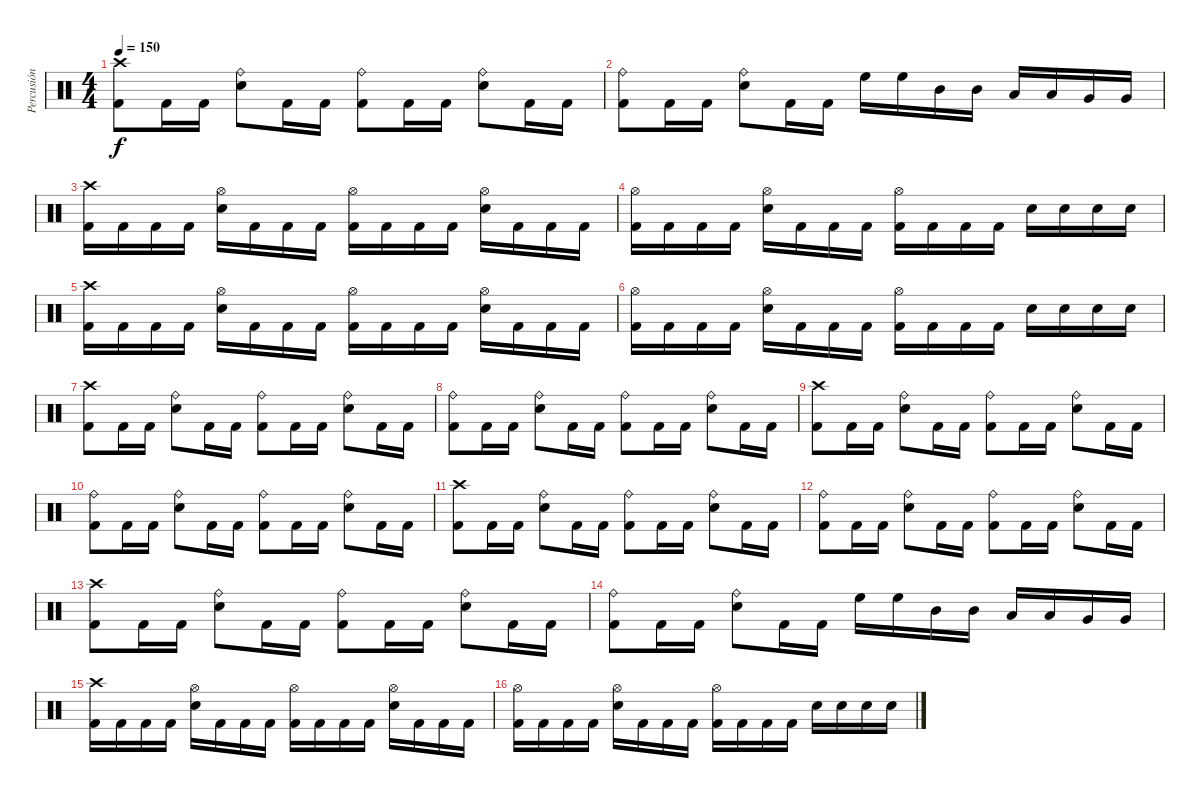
\track ("Percusión" "Percusión") {instrument percussion}
\staff {score}
\articulation defaults
\ts (4 4)
\tempo 150
\clef neutral
\ks c
("Crash high (hit)" "Kick (hit) 2").8{dy f} "Kick (hit) 2".16 "Kick (hit) 2".16 ("Ride (bell)" "Electric Snare (hit)").8 "Kick (hit) 2".16 "Kick (hit) 2".16 ("Ride (bell)" "Kick (hit) 2").8 "Kick (hit) 2".16 "Kick (hit) 2".16 ("Ride (bell)" "Electric Snare (hit)").8 "Kick (hit) 2".16 "Kick (hit) 2".16 |
("Ride (bell)" "Kick (hit) 2").8 "Kick (hit) 2".16 "Kick (hit) 2".16 ("Ride (bell)" "Electric Snare (hit)").8 "Kick (hit) 2".16 "Kick (hit) 2".16 "High Floor Tom (hit)".16 "High Floor Tom (hit)".16 "Mid Tom (hit)".16 "Mid Tom (hit)".16 "Low Tom (hit)".16 "Low Tom (hit)".16 "Very Low Tom (hit)".16 "Very Low Tom (hit)".16 |
("Crash high (hit)" "Kick (hit) 2").16 "Kick (hit) 2".16 "Kick (hit) 2".16 "Kick (hit) 2".16 ("Hi-Hat (open)" "Electric Snare (hit)").16 "Kick (hit) 2".16 "Kick (hit) 2".16 "Kick (hit) 2".16 ("Hi-Hat (open)" "Kick (hit) 2").16 "Kick (hit) 2".16 "Kick (hit) 2".16 "Kick (hit) 2".16 ("Hi-Hat (open)" "Electric Snare (hit)").16 "Kick (hit) 2".16 "Kick (hit) 2".16 "Kick (hit) 2".16 |
("Hi-Hat (open)" "Kick (hit) 2").16 "Kick (hit) 2".16 "Kick (hit) 2".16 "Kick (hit) 2".16 ("Hi-Hat (open)" "Electric Snare (hit)").16 "Kick (hit) 2".16 "Kick (hit) 2".16 "Kick (hit) 2".16 ("Hi-Hat (open)" "Kick (hit) 2").16 "Kick (hit) 2".16 "Kick (hit) 2".16 "Kick (hit) 2".16 "Electric Snare (hit)".16 "Electric Snare (hit)".16 "Electric Snare (hit)".16 "Electric Snare (hit)".16 |
("Crash high (hit)" "Kick (hit) 2").16 "Kick (hit) 2".16 "Kick (hit) 2".16 "Kick (hit) 2".16 ("Hi-Hat (open)" "Electric Snare (hit)").16 "Kick (hit) 2".16 "Kick (hit) 2".16 "Kick (hit) 2".16 ("Hi-Hat (open)" "Kick (hit) 2").16 "Kick (hit) 2".16 "Kick (hit) 2".16 "Kick (hit) 2".16 ("Hi-Hat (open)" "Electric Snare (hit)").16 "Kick (hit) 2".16 "Kick (hit) 2".16 "Kick (hit) 2".16 |
("Hi-Hat (open)" "Kick (hit) 2").16 "Kick (hit) 2".16 "Kick (hit) 2".16 "Kick (hit) 2".16 ("Hi-Hat (open)" "Electric Snare (hit)").16 "Kick (hit) 2".16 "Kick (hit) 2".16 "Kick (hit) 2".16 ("Hi-Hat (open)" "Kick (hit) 2").16 "Kick (hit) 2".16 "Kick (hit) 2".16 "Kick (hit) 2".16 "Electric Snare (hit)".16 "Electric Snare (hit)".16 "Electric Snare (hit)".16 "Electric Snare (hit)".16 |
("Crash high (hit)" "Kick (hit) 2").8 "Kick (hit) 2".16 "Kick (hit) 2".16 ("Ride (bell)" "Electric Snare (hit)").8 "Kick (hit) 2".16 "Kick (hit) 2".16 ("Ride (bell)" "Kick (hit) 2").8 "Kick (hit) 2".16 "Kick (hit) 2".16 ("Ride (bell)" "Electric Snare (hit)").8 "Kick (hit) 2".16 "Kick (hit) 2".16 |
("Ride (bell)" "Kick (hit) 2").8 "Kick (hit) 2".16 "Kick (hit) 2".16 ("Ride (bell)" "Electric Snare (hit)").8 "Kick (hit) 2".16 "Kick (hit) 2".16 ("Ride (bell)" "Kick (hit) 2").8 "Kick (hit) 2".16 "Kick (hit) 2".16 ("Ride (bell)" "Electric Snare (hit)").8 "Kick (hit) 2".16 "Kick (hit) 2".16 |
("Crash high (hit)" "Kick (hit) 2").8 "Kick (hit) 2".16 "Kick (hit) 2".16 ("Ride (bell)" "Electric Snare (hit)").8 "Kick (hit) 2".16 "Kick (hit) 2".16 ("Ride (bell)" "Kick (hit) 2").8 "Kick (hit) 2".16 "Kick (hit) 2".16 ("Ride (bell)" "Electric Snare (hit)").8 "Kick (hit) 2".16 "Kick (hit) 2".16 |
("Ride (bell)" "Kick (hit) 2").8 "Kick (hit) 2".16 "Kick (hit) 2".16 ("Ride (bell)" "Electric Snare (hit)").8 "Kick (hit) 2".16 "Kick (hit) 2".16 ("Ride (bell)" "Kick (hit) 2").8 "Kick (hit) 2".16 "Kick (hit) 2".16 ("Ride (bell)" "Electric Snare (hit)").8 "Kick (hit) 2".16 "Kick (hit) 2".16 |
("Crash high (hit)" "Kick (hit) 2").8 "Kick (hit) 2".16 "Kick (hit) 2".16 ("Ride (bell)" "Electric Snare (hit)").8 "Kick (hit) 2".16 "Kick (hit) 2".16 ("Ride (bell)" "Kick (hit) 2").8 "Kick (hit) 2".16 "Kick (hit) 2".16 ("Ride (bell)" "Electric Snare (hit)").8 "Kick (hit) 2".16 "Kick (hit) 2".16 |
("Ride (bell)" "Kick (hit) 2").8 "Kick (hit) 2".16 "Kick (hit) 2".16 ("Ride (bell)" "Electric Snare (hit)").8 "Kick (hit) 2".16 "Kick (hit) 2".16 ("Ride (bell)" "Kick (hit) 2").8 "Kick (hit) 2".16 "Kick (hit) 2".16 ("Ride (bell)" "Electric Snare (hit)").8 "Kick (hit) 2".16 "Kick (hit) 2".16 |
("Crash high (hit)" "Kick (hit) 2").8 "Kick (hit) 2".16 "Kick (hit) 2".16 ("Ride (bell)" "Electric Snare (hit)").8 "Kick (hit) 2".16 "Kick (hit) 2".16 ("Ride (bell)" "Kick (hit) 2").8 "Kick (hit) 2".16 "Kick (hit) 2".16 ("Ride (bell)" "Electric Snare (hit)").8 "Kick (hit) 2".16 "Kick (hit) 2".16 |
("Ride (bell)" "Kick (hit) 2").8 "Kick (hit) 2".16 "Kick (hit) 2".16 ("Ride (bell)" "Electric Snare (hit)").8 "Kick (hit) 2".16 "Kick (hit) 2".16 "High Floor Tom (hit)".16 "High Floor Tom (hit)".16 "Mid Tom (hit)".16 "Mid Tom (hit)".16 "Low Tom (hit)".16 "Low Tom (hit)".16 "Very Low Tom (hit)".16 "Very Low Tom (hit)".16 |
("Crash high (hit)" "Kick (hit) 2").16 "Kick (hit) 2".16 "Kick (hit) 2".16 "Kick (hit) 2".16 ("Hi-Hat (open)" "Electric Snare (hit)").16 "Kick (hit) 2".16 "Kick (hit) 2".16 "Kick (hit) 2".16 ("Hi-Hat (open)" "Kick (hit) 2").16 "Kick (hit) 2".16 "Kick (hit) 2".16 "Kick (hit) 2".16 ("Hi-Hat (open)" "Electric Snare (hit)").16 "Kick (hit) 2".16 "Kick (hit) 2".16 "Kick (hit) 2".16 |
("Hi-Hat (open)" "Kick (hit) 2").16 "Kick (hit) 2".16 "Kick (hit) 2".16 "Kick (hit) 2".16 ("Hi-Hat (open)" "Electric Snare (hit)").16 "Kick (hit) 2".16 "Kick (hit) 2".16 "Kick (hit) 2".16 ("Hi-Hat (open)" "Kick (hit) 2").16 "Kick (hit) 2".16 "Kick (hit) 2".16 "Kick (hit) 2".16 "Electric Snare (hit)".16 "Electric Snare (hit)".16 "Electric Snare (hit)".16 "Electric Snare (hit)".16
